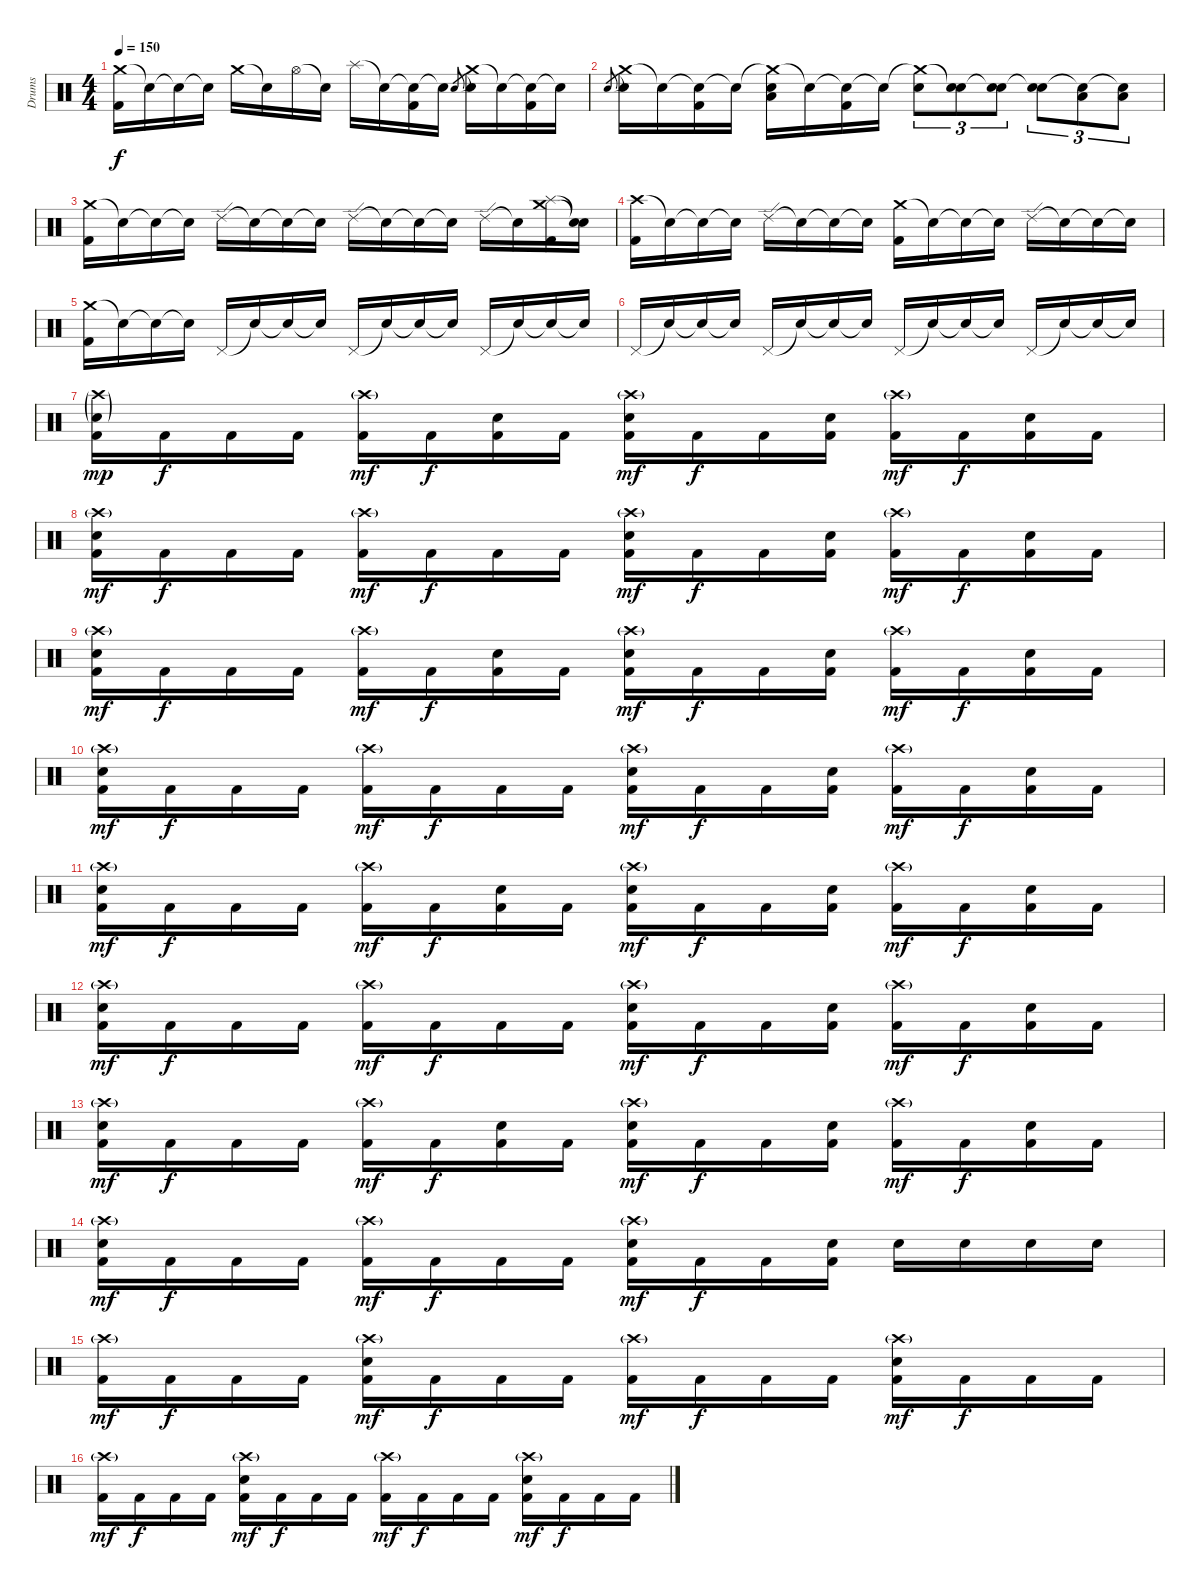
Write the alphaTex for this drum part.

\track ("Drums" "Drums") {instrument percussion}
\staff {score}
\articulation defaults
\ts (4 4)
\tempo 150
\clef neutral
\ks c
("Crash medium (hit)" "Kick (hit) 2").16{dy f} "Snare (hit)"{t}.16 "Snare (hit)"{t}.16 "Snare (hit)"{t}.16 "Crash medium (hit)".16 "Snare (hit)"{t}.16 "Hi-Hat (open)".16 "Snare (hit)"{t}.16 "Splash (hit)".16 "Snare (hit)"{t}.16 ("Snare (hit)"{t} "Kick (hit) 2").16 "Snare (hit)"{t}.16 "Electric Snare (hit)".8{gr} ("Crash medium (hit)"{t} "Electric Snare (hit)").16 "Snare (hit)"{t}.16 ("Snare (hit)"{t} "Kick (hit) 2").16 "Snare (hit)"{t}.16 |
"Electric Snare (hit)".8{gr} ("Crash medium (hit)"{t} "Electric Snare (hit)").16 "Snare (hit)"{t}.16 ("Snare (hit)"{t} "Kick (hit) 2").16 "Snare (hit)"{t}.16 ("Crash medium (hit)"{t} "Low Tom (hit)" "Electric Snare (hit)").16 "Snare (hit)"{t}.16 ("Snare (hit)"{t} "Kick (hit) 2").16 "Snare (hit)"{t}.16 ("Crash medium (hit)"{t} "Electric Snare (hit)").8{tu (3 2)} ("Snare (hit)"{t} "Electric Snare (hit)").8{tu (3 2)} ("Snare (hit)"{t} "Electric Snare (hit)").8{tu (3 2)} ("Snare (hit)"{t} "Electric Snare (hit)").8{tu (3 2)} ("Snare (hit)"{t} "Low Tom (hit)").8{tu (3 2)} ("Snare (hit)"{t} "Low Tom (hit)").8{tu (3 2)} |
("Crash medium (hit)" "Kick (hit) 2").16 "Snare (hit)"{t}.16 "Snare (hit)"{t}.16 "Snare (hit)"{t}.16 "Ride (edge) 2".16 "Snare (hit)"{t}.16 "Snare (hit)"{t}.16 "Snare (hit)"{t}.16 "Ride (edge) 2".16 "Snare (hit)"{t}.16 "Snare (hit)"{t}.16 "Snare (hit)"{t}.16 "Ride (edge) 2".16 "Snare (hit)"{t}.16 ("Crash medium (hit)" "Splash (hit)" "Kick (hit) 2").16 ("Snare (hit)"{t} "Snare (hit)"{t}).16 |
("Crash high (hit)" "Kick (hit) 2").16 "Snare (hit)"{t}.16 "Snare (hit)"{t}.16 "Snare (hit)"{t}.16 "Ride (edge) 2".16 "Snare (hit)"{t}.16 "Snare (hit)"{t}.16 "Snare (hit)"{t}.16 ("Crash medium (hit)" "Kick (hit) 2").16 "Snare (hit)"{t}.16 "Snare (hit)"{t}.16 "Snare (hit)"{t}.16 "Ride (edge) 2".16 "Snare (hit)"{t}.16 "Snare (hit)"{t}.16 "Snare (hit)"{t}.16 |
("Crash medium (hit)" "Kick (hit) 2").16 "Snare (hit)"{t}.16 "Snare (hit)"{t}.16 "Snare (hit)"{t}.16 "Pedal Hi-Hat (hit)".16 "Snare (hit)"{t}.16 "Snare (hit)"{t}.16 "Snare (hit)"{t}.16 "Pedal Hi-Hat (hit)".16 "Snare (hit)"{t}.16 "Snare (hit)"{t}.16 "Snare (hit)"{t}.16 "Pedal Hi-Hat (hit)".16 "Snare (hit)"{t}.16 "Snare (hit)"{t}.16 "Snare (hit)"{t}.16 |
"Pedal Hi-Hat (hit)".16 "Snare (hit)"{t}.16 "Snare (hit)"{t}.16 "Snare (hit)"{t}.16 "Pedal Hi-Hat (hit)".16 "Snare (hit)"{t}.16 "Snare (hit)"{t}.16 "Snare (hit)"{t}.16 "Pedal Hi-Hat (hit)".16 "Snare (hit)"{t}.16 "Snare (hit)"{t}.16 "Snare (hit)"{t}.16 "Pedal Hi-Hat (hit)".16 "Snare (hit)"{t}.16 "Snare (hit)"{t}.16 "Snare (hit)"{t}.16 |
("Crash high (hit)"{g} "Electric Snare (hit)"{g} "Kick (hit) 2").16{dy mp} "Kick (hit) 2".16{dy f} "Kick (hit) 2".16 "Kick (hit) 2".16 ("Crash high (hit)"{g} "Kick (hit) 2").16{dy mf} "Kick (hit) 2".16{dy f} ("Electric Snare (hit)" "Kick (hit) 2").16 "Kick (hit) 2".16 ("Crash high (hit)"{g} "Electric Snare (hit)" "Kick (hit) 2").16{dy mf} "Kick (hit) 2".16{dy f} "Kick (hit) 2".16 ("Electric Snare (hit)" "Kick (hit) 2").16 ("Crash high (hit)"{g} "Kick (hit) 2").16{dy mf} "Kick (hit) 2".16{dy f} ("Electric Snare (hit)" "Kick (hit) 2").16 "Kick (hit) 2".16 |
("Crash high (hit)"{g} "Electric Snare (hit)" "Kick (hit) 2").16{dy mf} "Kick (hit) 2".16{dy f} "Kick (hit) 2".16 "Kick (hit) 2".16 ("Crash high (hit)"{g} "Kick (hit) 2").16{dy mf} "Kick (hit) 2".16{dy f} "Kick (hit) 2".16 "Kick (hit) 2".16 ("Crash high (hit)"{g} "Electric Snare (hit)" "Kick (hit) 2").16{dy mf} "Kick (hit) 2".16{dy f} "Kick (hit) 2".16 ("Electric Snare (hit)" "Kick (hit) 2").16 ("Crash high (hit)"{g} "Kick (hit) 2").16{dy mf} "Kick (hit) 2".16{dy f} ("Electric Snare (hit)" "Kick (hit) 2").16 "Kick (hit) 2".16 |
("Crash high (hit)"{g} "Electric Snare (hit)" "Kick (hit) 2").16{dy mf} "Kick (hit) 2".16{dy f} "Kick (hit) 2".16 "Kick (hit) 2".16 ("Crash high (hit)"{g} "Kick (hit) 2").16{dy mf} "Kick (hit) 2".16{dy f} ("Electric Snare (hit)" "Kick (hit) 2").16 "Kick (hit) 2".16 ("Crash high (hit)"{g} "Electric Snare (hit)" "Kick (hit) 2").16{dy mf} "Kick (hit) 2".16{dy f} "Kick (hit) 2".16 ("Electric Snare (hit)" "Kick (hit) 2").16 ("Crash high (hit)"{g} "Kick (hit) 2").16{dy mf} "Kick (hit) 2".16{dy f} ("Electric Snare (hit)" "Kick (hit) 2").16 "Kick (hit) 2".16 |
("Crash high (hit)"{g} "Electric Snare (hit)" "Kick (hit) 2").16{dy mf} "Kick (hit) 2".16{dy f} "Kick (hit) 2".16 "Kick (hit) 2".16 ("Crash high (hit)"{g} "Kick (hit) 2").16{dy mf} "Kick (hit) 2".16{dy f} "Kick (hit) 2".16 "Kick (hit) 2".16 ("Crash high (hit)"{g} "Electric Snare (hit)" "Kick (hit) 2").16{dy mf} "Kick (hit) 2".16{dy f} "Kick (hit) 2".16 ("Electric Snare (hit)" "Kick (hit) 2").16 ("Crash high (hit)"{g} "Kick (hit) 2").16{dy mf} "Kick (hit) 2".16{dy f} ("Electric Snare (hit)" "Kick (hit) 2").16 "Kick (hit) 2".16 |
("Crash high (hit)"{g} "Electric Snare (hit)" "Kick (hit) 2").16{dy mf} "Kick (hit) 2".16{dy f} "Kick (hit) 2".16 "Kick (hit) 2".16 ("Crash high (hit)"{g} "Kick (hit) 2").16{dy mf} "Kick (hit) 2".16{dy f} ("Electric Snare (hit)" "Kick (hit) 2").16 "Kick (hit) 2".16 ("Crash high (hit)"{g} "Electric Snare (hit)" "Kick (hit) 2").16{dy mf} "Kick (hit) 2".16{dy f} "Kick (hit) 2".16 ("Electric Snare (hit)" "Kick (hit) 2").16 ("Crash high (hit)"{g} "Kick (hit) 2").16{dy mf} "Kick (hit) 2".16{dy f} ("Electric Snare (hit)" "Kick (hit) 2").16 "Kick (hit) 2".16 |
("Crash high (hit)"{g} "Electric Snare (hit)" "Kick (hit) 2").16{dy mf} "Kick (hit) 2".16{dy f} "Kick (hit) 2".16 "Kick (hit) 2".16 ("Crash high (hit)"{g} "Kick (hit) 2").16{dy mf} "Kick (hit) 2".16{dy f} "Kick (hit) 2".16 "Kick (hit) 2".16 ("Crash high (hit)"{g} "Electric Snare (hit)" "Kick (hit) 2").16{dy mf} "Kick (hit) 2".16{dy f} "Kick (hit) 2".16 ("Electric Snare (hit)" "Kick (hit) 2").16 ("Crash high (hit)"{g} "Kick (hit) 2").16{dy mf} "Kick (hit) 2".16{dy f} ("Electric Snare (hit)" "Kick (hit) 2").16 "Kick (hit) 2".16 |
("Crash high (hit)"{g} "Electric Snare (hit)" "Kick (hit) 2").16{dy mf} "Kick (hit) 2".16{dy f} "Kick (hit) 2".16 "Kick (hit) 2".16 ("Crash high (hit)"{g} "Kick (hit) 2").16{dy mf} "Kick (hit) 2".16{dy f} ("Electric Snare (hit)" "Kick (hit) 2").16 "Kick (hit) 2".16 ("Crash high (hit)"{g} "Electric Snare (hit)" "Kick (hit) 2").16{dy mf} "Kick (hit) 2".16{dy f} "Kick (hit) 2".16 ("Electric Snare (hit)" "Kick (hit) 2").16 ("Crash high (hit)"{g} "Kick (hit) 2").16{dy mf} "Kick (hit) 2".16{dy f} ("Electric Snare (hit)" "Kick (hit) 2").16 "Kick (hit) 2".16 |
("Crash high (hit)"{g} "Electric Snare (hit)" "Kick (hit) 2").16{dy mf} "Kick (hit) 2".16{dy f} "Kick (hit) 2".16 "Kick (hit) 2".16 ("Crash high (hit)"{g} "Kick (hit) 2").16{dy mf} "Kick (hit) 2".16{dy f} "Kick (hit) 2".16 "Kick (hit) 2".16 ("Crash high (hit)"{g} "Electric Snare (hit)" "Kick (hit) 2").16{dy mf} "Kick (hit) 2".16{dy f} "Kick (hit) 2".16 ("Electric Snare (hit)" "Kick (hit) 2").16 "Electric Snare (hit)".16 "Electric Snare (hit)".16 "Electric Snare (hit)".16 "Electric Snare (hit)".16 |
("Crash high (hit)"{g} "Kick (hit) 2").16{dy mf} "Kick (hit) 2".16{dy f} "Kick (hit) 2".16 "Kick (hit) 2".16 ("Crash high (hit)"{g} "Electric Snare (hit)" "Kick (hit) 2").16{dy mf} "Kick (hit) 2".16{dy f} "Kick (hit) 2".16 "Kick (hit) 2".16 ("Crash high (hit)"{g} "Kick (hit) 2").16{dy mf} "Kick (hit) 2".16{dy f} "Kick (hit) 2".16 "Kick (hit) 2".16 ("Crash high (hit)"{g} "Electric Snare (hit)" "Kick (hit) 2").16{dy mf} "Kick (hit) 2".16{dy f} "Kick (hit) 2".16 "Kick (hit) 2".16 |
("Crash high (hit)"{g} "Kick (hit) 2").16{dy mf} "Kick (hit) 2".16{dy f} "Kick (hit) 2".16 "Kick (hit) 2".16 ("Crash high (hit)"{g} "Electric Snare (hit)" "Kick (hit) 2").16{dy mf} "Kick (hit) 2".16{dy f} "Kick (hit) 2".16 "Kick (hit) 2".16 ("Crash high (hit)"{g} "Kick (hit) 2").16{dy mf} "Kick (hit) 2".16{dy f} "Kick (hit) 2".16 "Kick (hit) 2".16 ("Crash high (hit)"{g} "Electric Snare (hit)" "Kick (hit) 2").16{dy mf} "Kick (hit) 2".16{dy f} "Kick (hit) 2".16 "Kick (hit) 2".16
